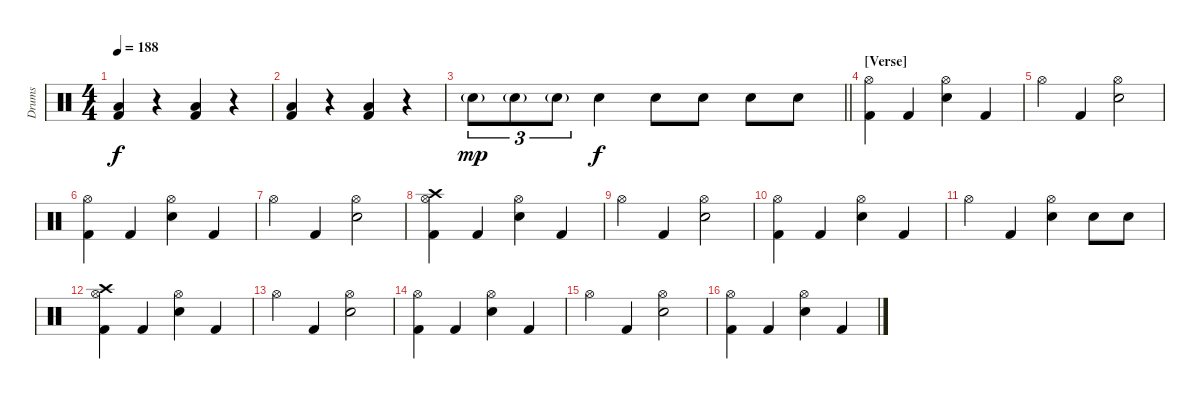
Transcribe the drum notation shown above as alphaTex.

\track ("Drums" "Drums") {instrument percussion}
\staff {score}
\articulation defaults
\ts (4 4)
\tempo 188
\clef neutral
\ks c
("Low Floor Tom (hit)" "Kick (hit) 2").4{dy f} r.4 ("Low Floor Tom (hit)" "Kick (hit) 2").4 r.4 |
("Low Floor Tom (hit)" "Kick (hit) 2").4 r.4 ("Low Floor Tom (hit)" "Kick (hit) 2").4 r.4 |
\barLineRight lightlight "Electric Snare (hit)"{g}.8{tu (3 2) dy mp} "Electric Snare (hit)"{g}.8{tu (3 2)} "Electric Snare (hit)"{g}.8{tu (3 2)} "Electric Snare (hit)".4{dy f} "Electric Snare (hit)".8 "Electric Snare (hit)".8 "Electric Snare (hit)".8 "Electric Snare (hit)".8
|
\section ("" "[Verse]")
("Hi-Hat (open)" "Kick (hit) 2").4 "Kick (hit) 2".4 ("Hi-Hat (open)" "Electric Snare (hit)").4 "Kick (hit) 2".4 |
"Hi-Hat (open)".4 "Kick (hit) 2".4 ("Hi-Hat (open)" "Electric Snare (hit)").2 |
("Hi-Hat (open)" "Kick (hit) 2").4 "Kick (hit) 2".4 ("Hi-Hat (open)" "Electric Snare (hit)").4 "Kick (hit) 2".4 |
"Hi-Hat (open)".4 "Kick (hit) 2".4 ("Hi-Hat (open)" "Electric Snare (hit)").2 |
("Crash high (hit)" "Hi-Hat (open)" "Kick (hit) 2").4 "Kick (hit) 2".4 ("Hi-Hat (open)" "Electric Snare (hit)").4 "Kick (hit) 2".4 |
"Hi-Hat (open)".4 "Kick (hit) 2".4 ("Hi-Hat (open)" "Electric Snare (hit)").2 |
("Hi-Hat (open)" "Kick (hit) 2").4 "Kick (hit) 2".4 ("Hi-Hat (open)" "Electric Snare (hit)").4 "Kick (hit) 2".4 |
"Hi-Hat (open)".4 "Kick (hit) 2".4 ("Hi-Hat (open)" "Electric Snare (hit)").4 "Electric Snare (hit)".8 "Electric Snare (hit)".8 |
("Crash high (hit)" "Hi-Hat (open)" "Kick (hit) 2").4 "Kick (hit) 2".4 ("Hi-Hat (open)" "Electric Snare (hit)").4 "Kick (hit) 2".4 |
"Hi-Hat (open)".4 "Kick (hit) 2".4 ("Hi-Hat (open)" "Electric Snare (hit)").2 |
("Hi-Hat (open)" "Kick (hit) 2").4 "Kick (hit) 2".4 ("Hi-Hat (open)" "Electric Snare (hit)").4 "Kick (hit) 2".4 |
"Hi-Hat (open)".4 "Kick (hit) 2".4 ("Hi-Hat (open)" "Electric Snare (hit)").2 |
("Hi-Hat (open)" "Kick (hit) 2").4 "Kick (hit) 2".4 ("Hi-Hat (open)" "Electric Snare (hit)").4 "Kick (hit) 2".4
